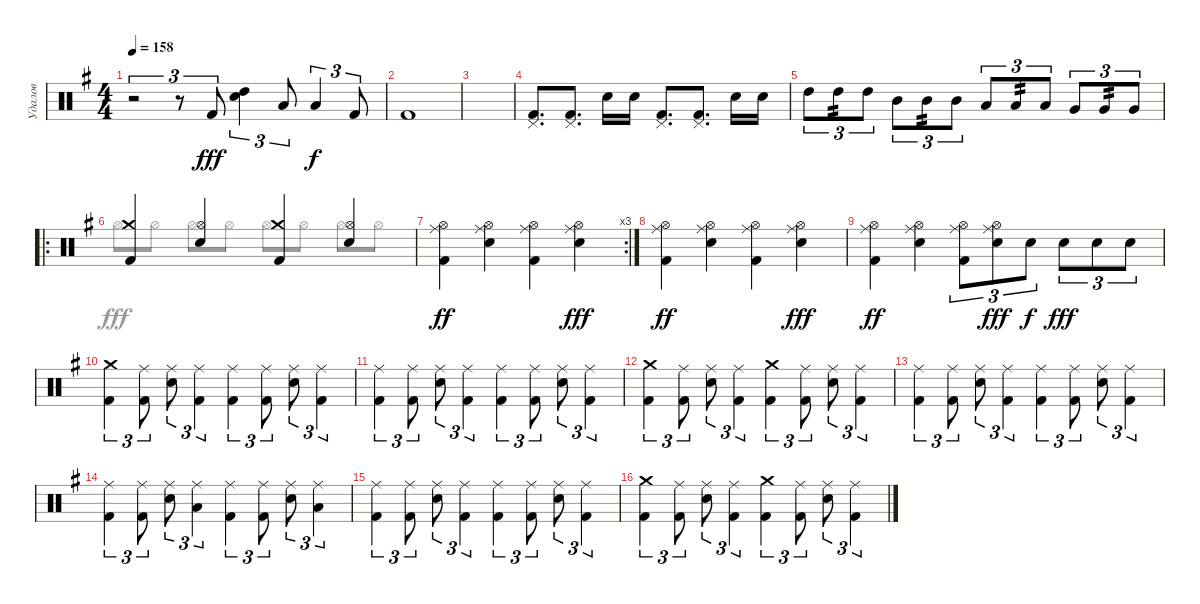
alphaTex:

\track ("Удалов" "Удалов") {instrument percussion}
\staff {score}
\articulation defaults
\voice
\ts (4 4)
\tempo 158
\clef neutral
\ks g
r.2{tu (3 2) dy fff} r.8{tu (3 2)} "Kick (hit) 2".8{tu (3 2)} ("High Tom (hit)" "Electric Snare (hit)").4{tu (3 2)} "Low Tom (hit)".8{tu (3 2)} "Low Tom (hit)".4{tu (3 2) dy f} "Kick (hit) 2".8{tu (3 2)} |
"Kick (hit) 2".1 |
|
("Kick (hit) 2" "Pedal Hi-Hat (hit)").8{d} ("Kick (hit) 2" "Pedal Hi-Hat (hit)").8{d} "Electric Snare (hit)".16 "Electric Snare (hit)".16 ("Kick (hit) 2" "Pedal Hi-Hat (hit)").8{d} ("Kick (hit) 2" "Pedal Hi-Hat (hit)").8{d} "Electric Snare (hit)".16 "Electric Snare (hit)".16 |
"High Tom (hit)".8{tu (3 2)} "High Tom (hit)".8{tu (3 2) tp 2} "High Tom (hit)".8{tu (3 2)} "Mid Tom (hit)".8{tu (3 2)} "Mid Tom (hit)".8{tu (3 2) tp 2} "Mid Tom (hit)".8{tu (3 2)} "Low Tom (hit)".8{tu (3 2)} "Low Tom (hit)".8{tu (3 2) tp 2} "Low Tom (hit)".8{tu (3 2)} "Very Low Tom (hit)".8{tu (3 2)} "Very Low Tom (hit)".8{tu (3 2) tp 2} "Very Low Tom (hit)".8{tu (3 2)} |
\ro
("Kick (hit) 2" "Crash medium (hit)").4 ("Electric Snare (hit)" "Hi-Hat (open)").4 ("Kick (hit) 2" "Crash medium (hit)").4 ("Electric Snare (hit)" "Hi-Hat (open)").4 |
\rc 3
("Kick (hit) 2" "Hi-Hat (open)" "Ride (middle)").4{dy ff} ("Electric Snare (hit)" "Hi-Hat (open)" "Ride (middle)").4 ("Kick (hit) 2" "Hi-Hat (open)" "Ride (middle)").4 ("Electric Snare (hit)" "Hi-Hat (open)" "Ride (middle)").4{dy fff} |
("Kick (hit) 2" "Hi-Hat (open)" "Ride (middle)").4{dy ff} ("Electric Snare (hit)" "Hi-Hat (open)" "Ride (middle)").4 ("Kick (hit) 2" "Hi-Hat (open)" "Ride (middle)").4 ("Electric Snare (hit)" "Hi-Hat (open)" "Ride (middle)").4{dy fff} |
("Kick (hit) 2" "Hi-Hat (open)" "Ride (middle)").4{dy ff} ("Electric Snare (hit)" "Hi-Hat (open)" "Ride (middle)").4 ("Kick (hit) 2" "Hi-Hat (open)" "Ride (middle)").8{tu (3 2)} ("Electric Snare (hit)" "Hi-Hat (open)" "Ride (middle)").8{tu (3 2) dy fff} "Electric Snare (hit)".8{tu (3 2) dy f} "Electric Snare (hit)".8{tu (3 2) dy fff} "Electric Snare (hit)".8{tu (3 2)} "Electric Snare (hit)".8{tu (3 2)} |
("Kick (hit) 2" "Crash medium (hit)").4{tu (3 2)} ("Kick (hit) 2" "Ride (middle)").8{tu (3 2)} ("Electric Snare (hit)" "Ride (middle)").8{tu (3 2)} ("Kick (hit) 2" "Ride (middle)").4{tu (3 2)} ("Kick (hit) 2" "Ride (middle)").4{tu (3 2)} ("Kick (hit) 2" "Ride (middle)").8{tu (3 2)} ("Electric Snare (hit)" "Ride (middle)").8{tu (3 2)} ("Kick (hit) 2" "Ride (middle)").4{tu (3 2)} |
("Kick (hit) 2" "Ride (middle)").4{tu (3 2)} ("Kick (hit) 2" "Ride (middle)").8{tu (3 2)} ("Electric Snare (hit)" "Ride (middle)").8{tu (3 2)} ("Kick (hit) 2" "Ride (middle)").4{tu (3 2)} ("Kick (hit) 2" "Ride (middle)").4{tu (3 2)} ("Kick (hit) 2" "Ride (middle)").8{tu (3 2)} ("Electric Snare (hit)" "Ride (middle)").8{tu (3 2)} ("Kick (hit) 2" "Ride (middle)").4{tu (3 2)} |
("Kick (hit) 2" "Crash medium (hit)").4{tu (3 2)} ("Kick (hit) 2" "Ride (middle)").8{tu (3 2)} ("Electric Snare (hit)" "Ride (middle)").8{tu (3 2)} ("Kick (hit) 2" "Ride (middle)").4{tu (3 2)} ("Kick (hit) 2" "Crash medium (hit)").4{tu (3 2)} ("Kick (hit) 2" "Ride (middle)").8{tu (3 2)} ("Electric Snare (hit)" "Ride (middle)").8{tu (3 2)} ("Kick (hit) 2" "Ride (middle)").4{tu (3 2)} |
("Kick (hit) 2" "Ride (middle)").4{tu (3 2)} ("Kick (hit) 2" "Ride (middle)").8{tu (3 2)} ("Electric Snare (hit)" "Ride (middle)").8{tu (3 2)} ("Kick (hit) 2" "Ride (middle)").4{tu (3 2)} ("Kick (hit) 2" "Ride (middle)").4{tu (3 2)} ("Kick (hit) 2" "Ride (middle)").8{tu (3 2)} ("Electric Snare (hit)" "Ride (middle)").8{tu (3 2)} ("Kick (hit) 2" "Ride (middle)").4{tu (3 2)} |
("Kick (hit) 2" "Ride (middle)").4{tu (3 2)} ("Kick (hit) 2" "Ride (middle)").8{tu (3 2)} ("Electric Snare (hit)" "Ride (middle)").8{tu (3 2)} ("Low Tom (hit)" "Ride (middle)").4{tu (3 2)} ("Kick (hit) 2" "Ride (middle)").4{tu (3 2)} ("Kick (hit) 2" "Ride (middle)").8{tu (3 2)} ("Electric Snare (hit)" "Ride (middle)").8{tu (3 2)} ("Low Tom (hit)" "Ride (middle)").4{tu (3 2)} |
("Kick (hit) 2" "Ride (middle)").4{tu (3 2)} ("Kick (hit) 2" "Ride (middle)").8{tu (3 2)} ("Electric Snare (hit)" "Ride (middle)").8{tu (3 2)} ("Kick (hit) 2" "Ride (middle)").4{tu (3 2)} ("Kick (hit) 2" "Ride (middle)").4{tu (3 2)} ("Kick (hit) 2" "Ride (middle)").8{tu (3 2)} ("Electric Snare (hit)" "Ride (middle)").8{tu (3 2)} ("Kick (hit) 2" "Ride (middle)").4{tu (3 2)} |
("Kick (hit) 2" "Crash medium (hit)").4{tu (3 2)} ("Kick (hit) 2" "Ride (middle)").8{tu (3 2)} ("Electric Snare (hit)" "Ride (middle)").8{tu (3 2)} ("Kick (hit) 2" "Ride (middle)").4{tu (3 2)} ("Kick (hit) 2" "Crash medium (hit)").4{tu (3 2)} ("Kick (hit) 2" "Ride (middle)").8{tu (3 2)} ("Electric Snare (hit)" "Ride (middle)").8{tu (3 2)} ("Kick (hit) 2" "Ride (middle)").4{tu (3 2)}
\voice
\clef neutral
\ottava regular
\simile none
\ks g
|
|
|
|
|
"Hi-Hat (open)".8 "Hi-Hat (open)".8 "Hi-Hat (open)".8 "Hi-Hat (open)".8 "Hi-Hat (open)".8 "Hi-Hat (open)".8 "Hi-Hat (open)".8 "Hi-Hat (open)".8 |
|
|
|
|
|
|
|
|
|
